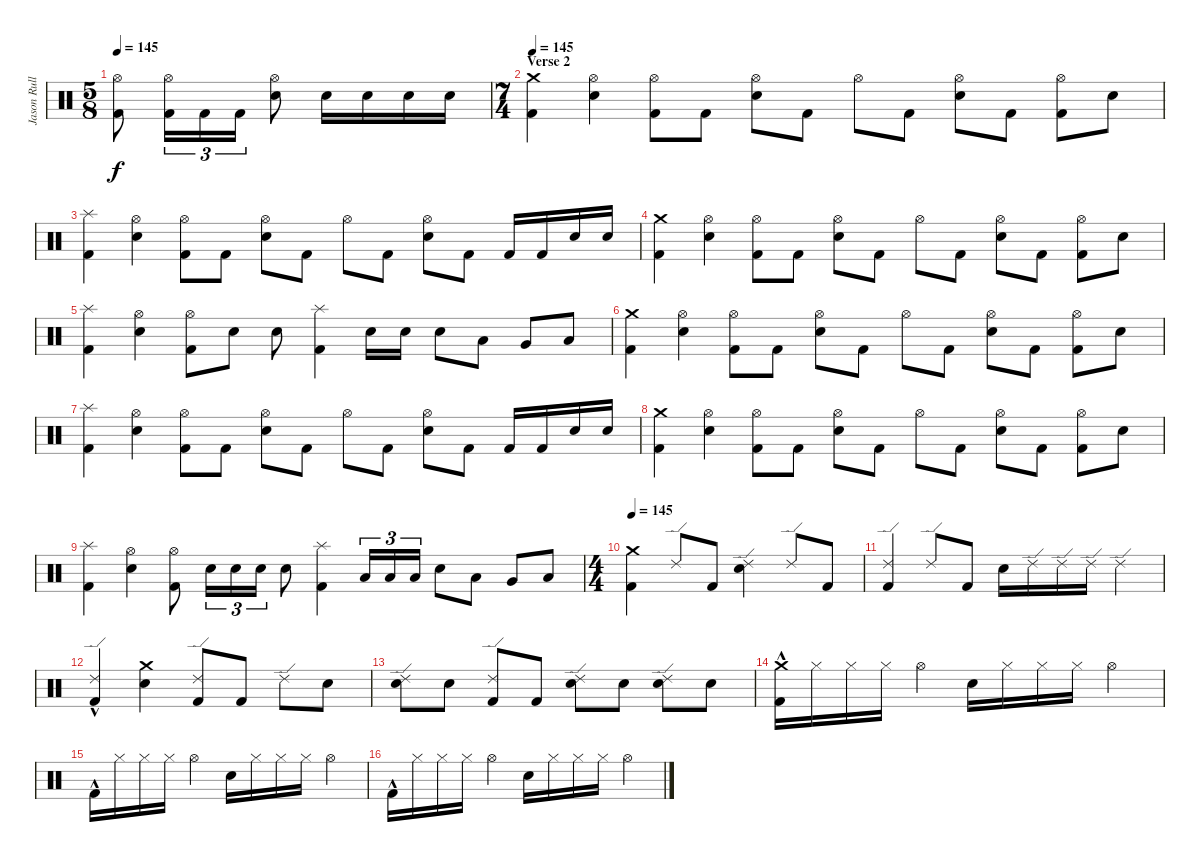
\track ("Jason Rullo" "Jason Rull") {instrument percussion}
\staff {score}
\articulation defaults
\ts (5 8)
\tempo 145
\clef neutral
\ks c
("Hi-Hat (open)" "Kick (hit) 2").8{dy f} ("Hi-Hat (open)" "Kick (hit) 2").16{tu (3 2)} "Kick (hit) 2".16{tu (3 2)} "Kick (hit) 2".16{tu (3 2)} ("Hi-Hat (open)" "Electric Snare (hit)").8 "Electric Snare (hit)".16 "Electric Snare (hit)".16 "Electric Snare (hit)".16 "Electric Snare (hit)".16 |
\ts (7 4)
\section ("" "Verse 2")
\tempo 145
("Crash medium (hit)" "Kick (hit) 2").4 ("Hi-Hat (open)" "Electric Snare (hit)").4 ("Hi-Hat (open)" "Kick (hit) 2").8 "Kick (hit) 2".8 ("Hi-Hat (open)" "Electric Snare (hit)").8 "Kick (hit) 2".8 "Hi-Hat (open)".8 "Kick (hit) 2".8 ("Hi-Hat (open)" "Electric Snare (hit)").8 "Kick (hit) 2".8 ("Hi-Hat (open)" "Kick (hit) 2").8 "Electric Snare (hit)".8 |
("Splash (hit)" "Kick (hit) 2").4 ("Hi-Hat (open)" "Electric Snare (hit)").4 ("Hi-Hat (open)" "Kick (hit) 2").8 "Kick (hit) 2".8 ("Hi-Hat (open)" "Electric Snare (hit)").8 "Kick (hit) 2".8 "Hi-Hat (open)".8 "Kick (hit) 2".8 ("Hi-Hat (open)" "Electric Snare (hit)").8 "Kick (hit) 2".8 "Kick (hit) 2".16 "Kick (hit) 2".16 "Electric Snare (hit)".16 "Electric Snare (hit)".16 |
("Crash medium (hit)" "Kick (hit) 2").4 ("Hi-Hat (open)" "Electric Snare (hit)").4 ("Hi-Hat (open)" "Kick (hit) 2").8 "Kick (hit) 2".8 ("Hi-Hat (open)" "Electric Snare (hit)").8 "Kick (hit) 2".8 "Hi-Hat (open)".8 "Kick (hit) 2".8 ("Hi-Hat (open)" "Electric Snare (hit)").8 "Kick (hit) 2".8 ("Hi-Hat (open)" "Kick (hit) 2").8 "Electric Snare (hit)".8 |
("Splash (hit)" "Kick (hit) 2").4 ("Hi-Hat (open)" "Electric Snare (hit)").4 ("Hi-Hat (open)" "Kick (hit) 2").8 "Electric Snare (hit)".8 "Electric Snare (hit)".8 ("Splash (hit)" "Kick (hit) 2").4 "Electric Snare (hit)".16 "Electric Snare (hit)".16 "Electric Snare (hit)".8 "Low Tom (hit)".8 "Very Low Tom (hit)".8 "Low Floor Tom (hit)".8 |
("Crash medium (hit)" "Kick (hit) 2").4 ("Hi-Hat (open)" "Electric Snare (hit)").4 ("Hi-Hat (open)" "Kick (hit) 2").8 "Kick (hit) 2".8 ("Hi-Hat (open)" "Electric Snare (hit)").8 "Kick (hit) 2".8 "Hi-Hat (open)".8 "Kick (hit) 2".8 ("Hi-Hat (open)" "Electric Snare (hit)").8 "Kick (hit) 2".8 ("Hi-Hat (open)" "Kick (hit) 2").8 "Electric Snare (hit)".8 |
("Splash (hit)" "Kick (hit) 2").4 ("Hi-Hat (open)" "Electric Snare (hit)").4 ("Hi-Hat (open)" "Kick (hit) 2").8 "Kick (hit) 2".8 ("Hi-Hat (open)" "Electric Snare (hit)").8 "Kick (hit) 2".8 "Hi-Hat (open)".8 "Kick (hit) 2".8 ("Hi-Hat (open)" "Electric Snare (hit)").8 "Kick (hit) 2".8 "Kick (hit) 2".16 "Kick (hit) 2".16 "Electric Snare (hit)".16 "Electric Snare (hit)".16 |
("Crash medium (hit)" "Kick (hit) 2").4 ("Hi-Hat (open)" "Electric Snare (hit)").4 ("Hi-Hat (open)" "Kick (hit) 2").8 "Kick (hit) 2".8 ("Hi-Hat (open)" "Electric Snare (hit)").8 "Kick (hit) 2".8 "Hi-Hat (open)".8 "Kick (hit) 2".8 ("Hi-Hat (open)" "Electric Snare (hit)").8 "Kick (hit) 2".8 ("Hi-Hat (open)" "Kick (hit) 2").8 "Electric Snare (hit)".8 |
("Splash (hit)" "Kick (hit) 2").4 ("Hi-Hat (open)" "Electric Snare (hit)").4 ("Hi-Hat (open)" "Kick (hit) 2").8 "Electric Snare (hit)".16{tu (3 2)} "Electric Snare (hit)".16{tu (3 2)} "Electric Snare (hit)".16{tu (3 2)} "Electric Snare (hit)".8 ("Splash (hit)" "Kick (hit) 2").4 "Low Tom (hit)".16{tu (3 2)} "Low Tom (hit)".16{tu (3 2)} "Low Tom (hit)".16{tu (3 2)} "Electric Snare (hit)".8 "Low Tom (hit)".8 "Very Low Tom (hit)".8 "Low Floor Tom (hit)".8 |
\ts (4 4)
\tempo 145
("Crash medium (hit)" "Kick (hit) 2").4 "Ride (edge) 2".8 "Kick (hit) 2".8 ("Electric Snare (hit)" "Ride (edge) 2").4 "Ride (edge) 2".8 "Kick (hit) 2".8 |
("Ride (edge) 2" "Kick (hit) 2").4 "Ride (edge) 2".8 "Kick (hit) 2".8 "Electric Snare (hit)".16 "Ride (edge) 2".16 "Ride (edge) 2".16 "Ride (edge) 2".16 "Ride (edge) 2".4 |
("Ride (edge) 2"{hac} "Kick (hit) 2").4 ("Crash medium (hit)" "Electric Snare (hit)").4 ("Ride (edge) 2" "Kick (hit) 2").8 "Kick (hit) 2".8 "Ride (edge) 2".8 "Electric Snare (hit)".8 |
("Ride (edge) 2" "Electric Snare (hit)").8 "Electric Snare (hit)".8 ("Ride (edge) 2" "Kick (hit) 2").8 "Kick (hit) 2".8 ("Ride (edge) 2" "Electric Snare (hit)").8 "Electric Snare (hit)".8 ("Ride (edge) 2" "Electric Snare (hit)").8 "Electric Snare (hit)".8 |
("Crash medium (hit)"{hac} "Kick (hit) 2"{hac}).16 "Hi-Hat (closed)".16 "Hi-Hat (closed)".16 "Hi-Hat (closed)".16 "Hi-Hat (open)".4 "Electric Snare (hit)".16 "Hi-Hat (closed)".16 "Hi-Hat (closed)".16 "Hi-Hat (closed)".16 "Hi-Hat (open)".4 |
"Kick (hit) 2"{hac}.16 "Hi-Hat (closed)".16 "Hi-Hat (closed)".16 "Hi-Hat (closed)".16 "Hi-Hat (open)".4 "Electric Snare (hit)".16 "Hi-Hat (closed)".16 "Hi-Hat (closed)".16 "Hi-Hat (closed)".16 "Hi-Hat (open)".4 |
"Kick (hit) 2"{hac}.16 "Hi-Hat (closed)".16 "Hi-Hat (closed)".16 "Hi-Hat (closed)".16 "Hi-Hat (open)".4 "Electric Snare (hit)".16 "Hi-Hat (closed)".16 "Hi-Hat (closed)".16 "Hi-Hat (closed)".16 "Hi-Hat (open)".4
